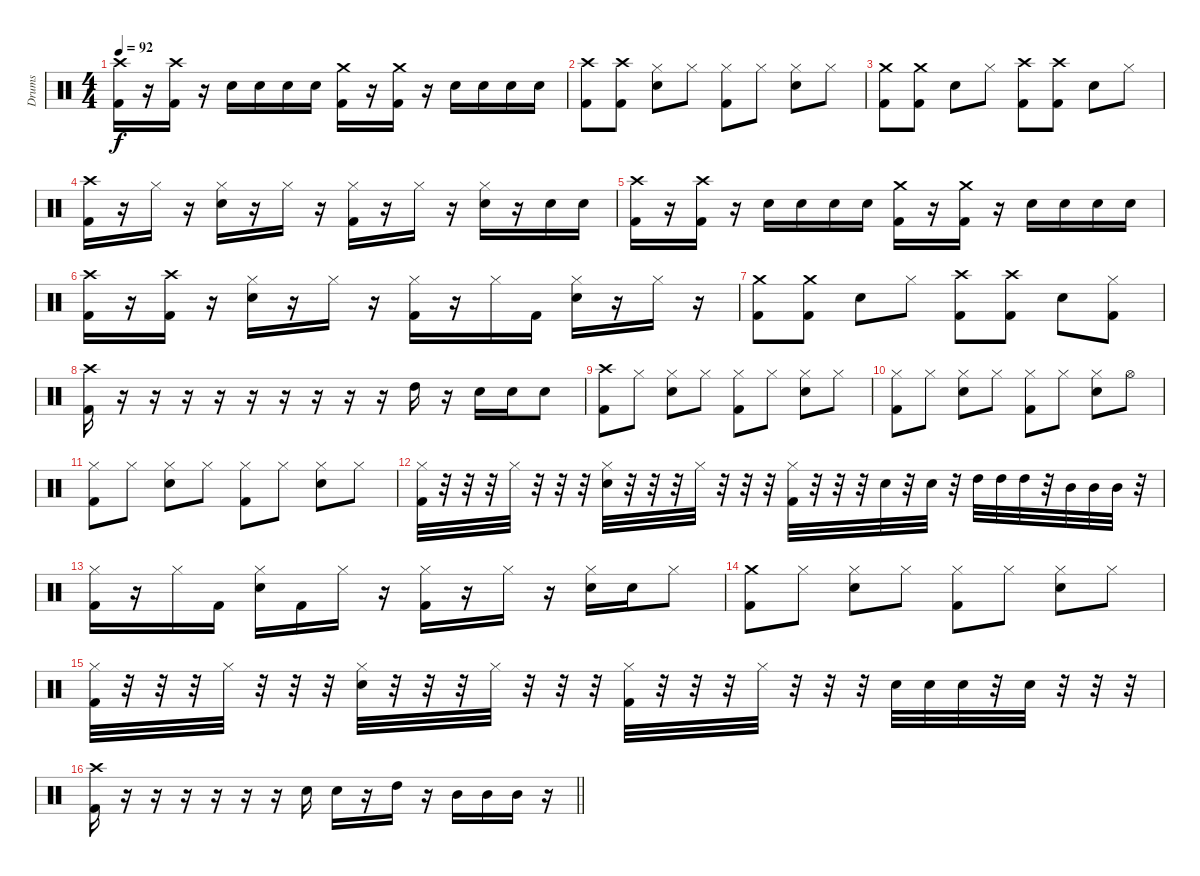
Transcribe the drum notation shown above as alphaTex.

\track ("Drums" "Drums") {instrument percussion}
\staff {score}
\articulation defaults
\ts (4 4)
\tempo 92
\clef neutral
\ks c
("Crash high (hit)" "Kick (hit) 2").16{dy f} r.16 ("Crash high (hit)" "Kick (hit) 2").16 r.16 "Snare (hit) 2".16 "Snare (hit) 2".16 "Snare (hit) 2".16 "Snare (hit) 2".16 ("Crash medium (hit)" "Kick (hit) 2").16 r.16 ("Crash medium (hit)" "Kick (hit) 2").16 r.16 "Snare (hit) 2".16 "Snare (hit) 2".16 "Snare (hit) 2".16 "Snare (hit) 2".16 |
("Crash high (hit)" "Kick (hit) 2").8 ("Crash high (hit)" "Kick (hit) 2").8 ("Hi-Hat (closed)" "Snare (hit) 2").8 "Hi-Hat (closed)".8 ("Hi-Hat (closed)" "Kick (hit) 2").8 "Hi-Hat (closed)".8 ("Hi-Hat (closed)" "Snare (hit) 2").8 "Hi-Hat (closed)".8 |
("Crash medium (hit)" "Kick (hit) 2").8 ("Crash medium (hit)" "Kick (hit) 2").8 "Snare (hit) 2".8 "Hi-Hat (closed)".8 ("Crash high (hit)" "Kick (hit) 2").8 ("Crash high (hit)" "Kick (hit) 2").8 "Snare (hit) 2".8 "Hi-Hat (closed)".8 |
("Crash high (hit)" "Kick (hit) 2").16 r.16 "Hi-Hat (closed)".16 r.16 ("Hi-Hat (closed)" "Snare (hit) 2").16 r.16 "Hi-Hat (closed)".16 r.16 ("Hi-Hat (closed)" "Kick (hit) 2").16 r.16 "Hi-Hat (closed)".16 r.16 ("Hi-Hat (closed)" "Snare (hit) 2").16 r.16 "Snare (hit) 2".16 "Snare (hit) 2".16 |
("Crash high (hit)" "Kick (hit) 2").16 r.16 ("Crash high (hit)" "Kick (hit) 2").16 r.16 "Snare (hit) 2".16 "Snare (hit) 2".16 "Snare (hit) 2".16 "Snare (hit) 2".16 ("Crash medium (hit)" "Kick (hit) 2").16 r.16 ("Crash medium (hit)" "Kick (hit) 2").16 r.16 "Snare (hit) 2".16 "Snare (hit) 2".16 "Snare (hit) 2".16 "Snare (hit) 2".16 |
("Crash high (hit)" "Kick (hit) 2").16 r.16 ("Crash high (hit)" "Kick (hit) 2").16 r.16 ("Hi-Hat (closed)" "Snare (hit) 2").16 r.16 "Hi-Hat (closed)".16 r.16 ("Hi-Hat (closed)" "Kick (hit) 2").16 r.16 "Hi-Hat (closed)".16 "Kick (hit) 2".16 ("Hi-Hat (closed)" "Snare (hit) 2").16 r.16 "Hi-Hat (closed)".16 r.16 |
("Crash medium (hit)" "Kick (hit) 2").8 ("Crash medium (hit)" "Kick (hit) 2").8 "Snare (hit) 2".8 "Hi-Hat (closed)".8 ("Crash high (hit)" "Kick (hit) 2").8 ("Crash high (hit)" "Kick (hit) 2").8 "Snare (hit) 2".8 ("Hi-Hat (closed)" "Kick (hit) 2").8 |
("Crash high (hit)" "Kick (hit) 2").16 r.16 r.16 r.16 r.16 r.16 r.16 r.16 r.16 r.16 "High Tom (hit)".16 r.16 "Snare (hit) 2".16 "Snare (hit) 2".16 "Snare (hit) 2".8 |
("Crash high (hit)" "Kick (hit) 2").8 "Hi-Hat (closed)".8 ("Hi-Hat (closed)" "Snare (hit) 2").8 "Hi-Hat (closed)".8 ("Hi-Hat (closed)" "Kick (hit) 2").8 "Hi-Hat (closed)".8 ("Hi-Hat (closed)" "Snare (hit) 2").8 "Hi-Hat (closed)".8 |
("Hi-Hat (closed)" "Kick (hit) 2").8 "Hi-Hat (closed)".8 ("Hi-Hat (closed)" "Snare (hit) 2").8 "Hi-Hat (closed)".8 ("Hi-Hat (closed)" "Kick (hit) 2").8 "Hi-Hat (closed)".8 ("Hi-Hat (closed)" "Snare (hit) 2").8 "Hi-Hat (open)".8 |
("Hi-Hat (closed)" "Kick (hit) 2").8 "Hi-Hat (closed)".8 ("Hi-Hat (closed)" "Snare (hit) 2").8 "Hi-Hat (closed)".8 ("Hi-Hat (closed)" "Kick (hit) 2").8 "Hi-Hat (closed)".8 ("Hi-Hat (closed)" "Snare (hit) 2").8 "Hi-Hat (closed)".8 |
("Hi-Hat (closed)" "Kick (hit) 2").32 r.32 r.32 r.32 "Hi-Hat (closed)".32 r.32 r.32 r.32 ("Hi-Hat (closed)" "Snare (hit) 2").32 r.32 r.32 r.32 "Hi-Hat (closed)".32 r.32 r.32 r.32 ("Hi-Hat (closed)" "Kick (hit) 2").32 r.32 r.32 r.32 "Snare (hit) 2".32 r.32 "Snare (hit) 2".32 r.32 "High Tom (hit)".32 "High Tom (hit)".32 "High Tom (hit)".32 r.32 "Mid Tom (hit)".32 "Mid Tom (hit)".32 "Mid Tom (hit)".32 r.32 |
("Hi-Hat (closed)" "Kick (hit) 2").16 r.16 "Hi-Hat (closed)".16 "Kick (hit) 2".16 ("Hi-Hat (closed)" "Snare (hit) 2").16 "Kick (hit) 2".16 "Hi-Hat (closed)".16 r.16 ("Hi-Hat (closed)" "Kick (hit) 2").16 r.16 "Hi-Hat (closed)".16 r.16 ("Hi-Hat (closed)" "Snare (hit) 2").16 "Snare (hit) 2".16 "Hi-Hat (closed)".8 |
("Crash medium (hit)" "Kick (hit) 2").8 "Hi-Hat (closed)".8 ("Hi-Hat (closed)" "Snare (hit) 2").8 "Hi-Hat (closed)".8 ("Hi-Hat (closed)" "Kick (hit) 2").8 "Hi-Hat (closed)".8 ("Hi-Hat (closed)" "Snare (hit) 2").8 "Hi-Hat (closed)".8 |
("Hi-Hat (closed)" "Kick (hit) 2").32 r.32 r.32 r.32 "Hi-Hat (closed)".32 r.32 r.32 r.32 ("Hi-Hat (closed)" "Snare (hit) 2").32 r.32 r.32 r.32 "Hi-Hat (closed)".32 r.32 r.32 r.32 ("Hi-Hat (closed)" "Kick (hit) 2").32 r.32 r.32 r.32 "Hi-Hat (closed)".32 r.32 r.32 r.32 "Snare (hit) 2".32 "Snare (hit) 2".32 "Snare (hit) 2".32 r.32 "Snare (hit) 2".32 r.32 r.32 r.32 |
\barLineRight lightlight
("Crash high (hit)" "Kick (hit) 2").16 r.16 r.16 r.16 r.16 r.16 r.16 "Snare (hit) 2".16 "Snare (hit) 2".16 r.16 "High Tom (hit)".16 r.16 "Mid Tom (hit)".16 "Mid Tom (hit)".16 "Mid Tom (hit)".16 r.16
